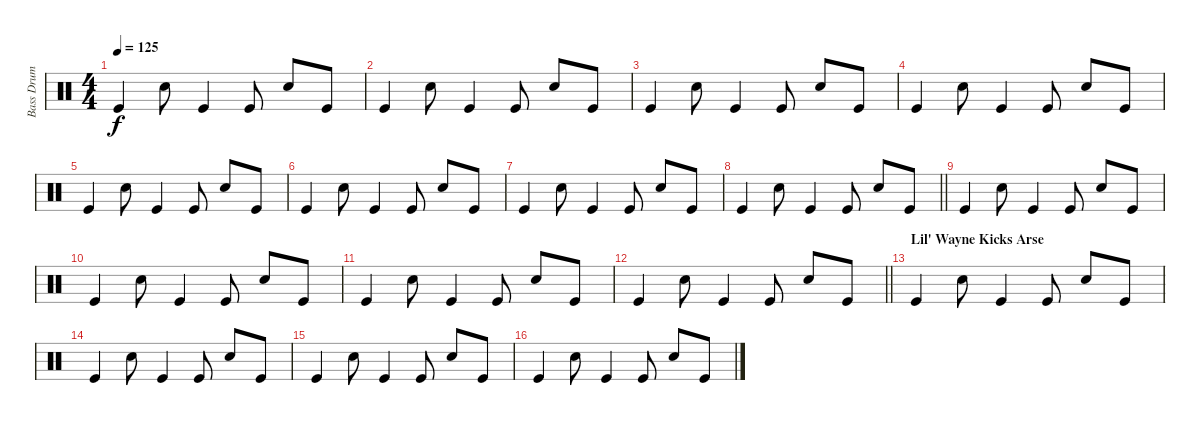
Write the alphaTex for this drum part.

\track ("Bass Drum and Clap" "Bass Drum ") {instrument percussion}
\staff {score}
\articulation defaults
\ts (4 4)
\tempo 125
\clef neutral
\ks c "Kick (hit)".4{dy f} "Hand Clap (hit)".8 "Kick (hit)".4 "Kick (hit)".8 "Hand Clap (hit)".8 "Kick (hit)".8
|
"Kick (hit)".4 "Hand Clap (hit)".8 "Kick (hit)".4 "Kick (hit)".8 "Hand Clap (hit)".8 "Kick (hit)".8 |
"Kick (hit)".4 "Hand Clap (hit)".8 "Kick (hit)".4 "Kick (hit)".8 "Hand Clap (hit)".8 "Kick (hit)".8 |
"Kick (hit)".4 "Hand Clap (hit)".8 "Kick (hit)".4 "Kick (hit)".8 "Hand Clap (hit)".8 "Kick (hit)".8 |
"Kick (hit)".4 "Hand Clap (hit)".8 "Kick (hit)".4 "Kick (hit)".8 "Hand Clap (hit)".8 "Kick (hit)".8 |
"Kick (hit)".4 "Hand Clap (hit)".8 "Kick (hit)".4 "Kick (hit)".8 "Hand Clap (hit)".8 "Kick (hit)".8 |
"Kick (hit)".4 "Hand Clap (hit)".8 "Kick (hit)".4 "Kick (hit)".8 "Hand Clap (hit)".8 "Kick (hit)".8 |
\barLineRight lightlight "Kick (hit)".4 "Hand Clap (hit)".8 "Kick (hit)".4 "Kick (hit)".8 "Hand Clap (hit)".8 "Kick (hit)".8
|
"Kick (hit)".4 "Hand Clap (hit)".8 "Kick (hit)".4 "Kick (hit)".8 "Hand Clap (hit)".8 "Kick (hit)".8 |
"Kick (hit)".4 "Hand Clap (hit)".8 "Kick (hit)".4 "Kick (hit)".8 "Hand Clap (hit)".8 "Kick (hit)".8 |
"Kick (hit)".4 "Hand Clap (hit)".8 "Kick (hit)".4 "Kick (hit)".8 "Hand Clap (hit)".8 "Kick (hit)".8 |
\barLineRight lightlight "Kick (hit)".4 "Hand Clap (hit)".8 "Kick (hit)".4 "Kick (hit)".8 "Hand Clap (hit)".8 "Kick (hit)".8
|
\section ("" "Lil' Wayne Kicks Arse")
"Kick (hit)".4 "Hand Clap (hit)".8 "Kick (hit)".4 "Kick (hit)".8 "Hand Clap (hit)".8 "Kick (hit)".8 |
"Kick (hit)".4 "Hand Clap (hit)".8 "Kick (hit)".4 "Kick (hit)".8 "Hand Clap (hit)".8 "Kick (hit)".8 |
"Kick (hit)".4 "Hand Clap (hit)".8 "Kick (hit)".4 "Kick (hit)".8 "Hand Clap (hit)".8 "Kick (hit)".8 |
"Kick (hit)".4 "Hand Clap (hit)".8 "Kick (hit)".4 "Kick (hit)".8 "Hand Clap (hit)".8 "Kick (hit)".8
